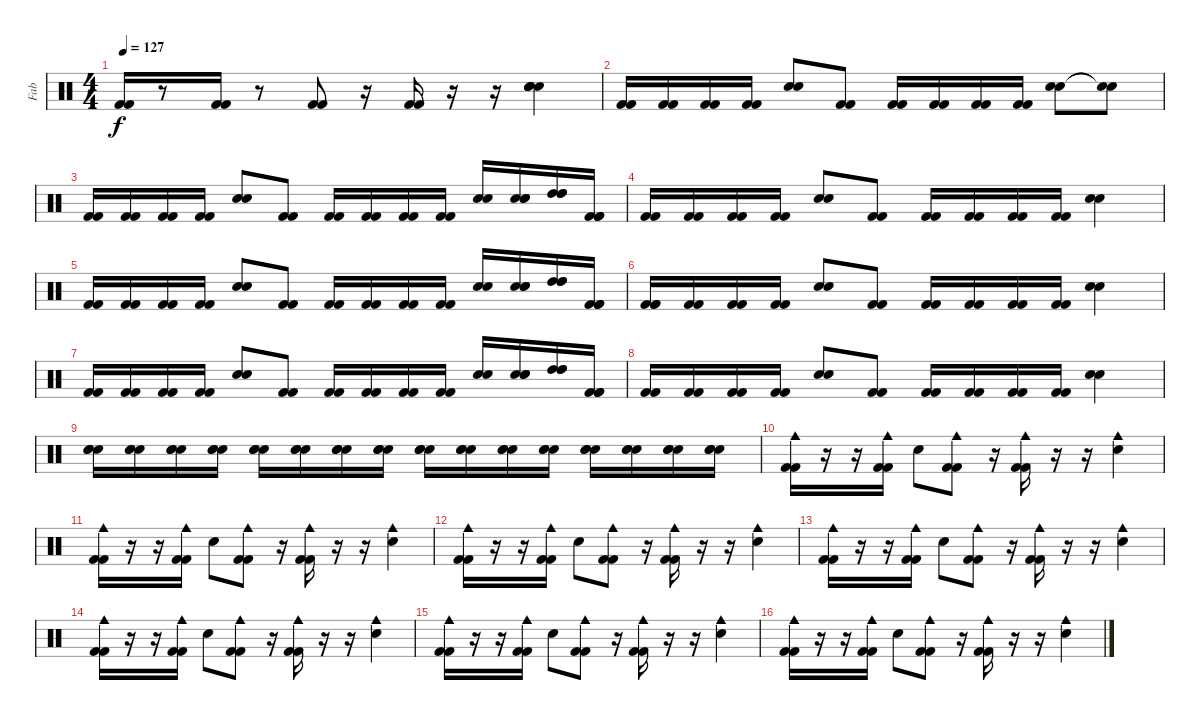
\track ("Fab" "Fab") {instrument percussion}
\staff {score}
\articulation defaults
\ts (4 4)
\tempo 127
\clef neutral
\ks c
("Kick (hit) 2" "Kick (hit) 2").16{dy f} r.8 ("Kick (hit) 2" "Kick (hit) 2").16 r.8 ("Kick (hit) 2" "Kick (hit) 2").8 r.16 ("Kick (hit) 2" "Kick (hit) 2").16 r.16 r.16 ("Electric Snare (hit)" "Hand Clap (hit)" "Hand Clap (hit)" "Hand Clap (hit)").4 |
("Kick (hit) 2" "Kick (hit) 2").16 ("Kick (hit) 2" "Kick (hit) 2").16 ("Kick (hit) 2" "Kick (hit) 2").16 ("Kick (hit) 2" "Kick (hit) 2").16 ("Electric Snare (hit)" "Electric Snare (hit)").8 ("Kick (hit) 2" "Kick (hit) 2").8 ("Kick (hit) 2" "Kick (hit) 2").16 ("Kick (hit) 2" "Kick (hit) 2").16 ("Kick (hit) 2" "Kick (hit) 2").16 ("Kick (hit) 2" "Kick (hit) 2").16 ("Electric Snare (hit)" "Electric Snare (hit)").8 ("Snare (hit)"{t} "Snare (hit)"{t}).8 |
("Kick (hit) 2" "Kick (hit) 2").16 ("Kick (hit) 2" "Kick (hit) 2").16 ("Kick (hit) 2" "Kick (hit) 2").16 ("Kick (hit) 2" "Kick (hit) 2").16 ("Electric Snare (hit)" "Electric Snare (hit)").8 ("Kick (hit) 2" "Kick (hit) 2").8 ("Kick (hit) 2" "Kick (hit) 2").16 ("Kick (hit) 2" "Kick (hit) 2").16 ("Kick (hit) 2" "Kick (hit) 2").16 ("Kick (hit) 2" "Kick (hit) 2").16 ("Electric Snare (hit)" "Electric Snare (hit)").16 ("Snare (hit) 2" "Snare (hit) 2" "Snare (hit) 2").16 ("High Tom (hit)" "High Tom (hit)" "High Tom (hit)").16 ("Kick (hit) 2" "Kick (hit) 2" "Kick (hit) 2").16 |
("Kick (hit) 2" "Kick (hit) 2").16 ("Kick (hit) 2" "Kick (hit) 2").16 ("Kick (hit) 2" "Kick (hit) 2").16 ("Kick (hit) 2" "Kick (hit) 2").16 ("Electric Snare (hit)" "Electric Snare (hit)").8 ("Kick (hit) 2" "Kick (hit) 2").8 ("Kick (hit) 2" "Kick (hit) 2").16 ("Kick (hit) 2" "Kick (hit) 2").16 ("Kick (hit) 2" "Kick (hit) 2").16 ("Kick (hit) 2" "Kick (hit) 2").16 ("Electric Snare (hit)" "Electric Snare (hit)").4 |
("Kick (hit) 2" "Kick (hit) 2").16 ("Kick (hit) 2" "Kick (hit) 2").16 ("Kick (hit) 2" "Kick (hit) 2").16 ("Kick (hit) 2" "Kick (hit) 2").16 ("Electric Snare (hit)" "Electric Snare (hit)").8 ("Kick (hit) 2" "Kick (hit) 2").8 ("Kick (hit) 2" "Kick (hit) 2").16 ("Kick (hit) 2" "Kick (hit) 2").16 ("Kick (hit) 2" "Kick (hit) 2").16 ("Kick (hit) 2" "Kick (hit) 2").16 ("Electric Snare (hit)" "Electric Snare (hit)").16 ("Snare (hit) 2" "Snare (hit) 2" "Snare (hit) 2").16 ("High Tom (hit)" "High Tom (hit)" "High Tom (hit)").16 ("Kick (hit) 2" "Kick (hit) 2" "Kick (hit) 2").16 |
("Kick (hit) 2" "Kick (hit) 2" "Kick (hit) 2").16 ("Kick (hit) 2" "Kick (hit) 2").16 ("Kick (hit) 2" "Kick (hit) 2").16 ("Kick (hit) 2" "Kick (hit) 2").16 ("Electric Snare (hit)" "Electric Snare (hit)").8 ("Kick (hit) 2" "Kick (hit) 2").8 ("Kick (hit) 2" "Kick (hit) 2").16 ("Kick (hit) 2" "Kick (hit) 2").16 ("Kick (hit) 2" "Kick (hit) 2").16 ("Kick (hit) 2" "Kick (hit) 2").16 ("Electric Snare (hit)" "Electric Snare (hit)").4 |
("Kick (hit) 2" "Kick (hit) 2").16 ("Kick (hit) 2" "Kick (hit) 2").16 ("Kick (hit) 2" "Kick (hit) 2").16 ("Kick (hit) 2" "Kick (hit) 2").16 ("Electric Snare (hit)" "Electric Snare (hit)").8 ("Kick (hit) 2" "Kick (hit) 2").8 ("Kick (hit) 2" "Kick (hit) 2").16 ("Kick (hit) 2" "Kick (hit) 2").16 ("Kick (hit) 2" "Kick (hit) 2").16 ("Kick (hit) 2" "Kick (hit) 2").16 ("Electric Snare (hit)" "Electric Snare (hit)").16 ("Snare (hit) 2" "Snare (hit) 2" "Snare (hit) 2").16 ("High Tom (hit)" "High Tom (hit)" "High Tom (hit)").16 ("Kick (hit) 2" "Kick (hit) 2" "Kick (hit) 2").16 |
("Kick (hit) 2" "Kick (hit) 2").16 ("Kick (hit) 2" "Kick (hit) 2").16 ("Kick (hit) 2" "Kick (hit) 2").16 ("Kick (hit) 2" "Kick (hit) 2").16 ("Electric Snare (hit)" "Electric Snare (hit)").8 ("Kick (hit) 2" "Kick (hit) 2").8 ("Kick (hit) 2" "Kick (hit) 2").16 ("Kick (hit) 2" "Kick (hit) 2").16 ("Kick (hit) 2" "Kick (hit) 2").16 ("Kick (hit) 2" "Kick (hit) 2").16 ("Electric Snare (hit)" "Electric Snare (hit)").4 |
("Electric Snare (hit)" "Electric Snare (hit)" "Electric Snare (hit)").16 ("Electric Snare (hit)" "Electric Snare (hit)" "Electric Snare (hit)").16 ("Electric Snare (hit)" "Electric Snare (hit)" "Electric Snare (hit)").16 ("Electric Snare (hit)" "Electric Snare (hit)" "Electric Snare (hit)").16 ("Electric Snare (hit)" "Electric Snare (hit)" "Electric Snare (hit)").16 ("Electric Snare (hit)" "Electric Snare (hit)" "Electric Snare (hit)").16 ("Electric Snare (hit)" "Electric Snare (hit)" "Electric Snare (hit)").16 ("Electric Snare (hit)" "Electric Snare (hit)" "Electric Snare (hit)").16 ("Electric Snare (hit)" "Electric Snare (hit)" "Electric Snare (hit)").16 ("Electric Snare (hit)" "Electric Snare (hit)" "Electric Snare (hit)").16 ("Electric Snare (hit)" "Electric Snare (hit)" "Electric Snare (hit)").16 ("Electric Snare (hit)" "Electric Snare (hit)" "Electric Snare (hit)").16 ("Electric Snare (hit)" "Electric Snare (hit)" "Electric Snare (hit)").16 ("Electric Snare (hit)" "Electric Snare (hit)" "Electric Snare (hit)").16 ("Electric Snare (hit)" "Electric Snare (hit)" "Electric Snare (hit)").16 ("Electric Snare (hit)" "Electric Snare (hit)" "Electric Snare (hit)").16 |
("Kick (hit) 2" "Kick (hit) 2" "Cowbell medium (hit)").16 r.16 r.16 ("Kick (hit) 2" "Kick (hit) 2" "Cowbell medium (hit)").16 "Electric Snare (hit)".8 ("Kick (hit) 2" "Kick (hit) 2" "Cowbell medium (hit)").8 r.16 ("Kick (hit) 2" "Kick (hit) 2" "Cowbell medium (hit)").16 r.16 r.16 ("Electric Snare (hit)" "Cowbell medium (hit)").4 |
("Kick (hit) 2" "Kick (hit) 2" "Cowbell medium (hit)").16 r.16 r.16 ("Kick (hit) 2" "Kick (hit) 2" "Cowbell medium (hit)").16 "Electric Snare (hit)".8 ("Kick (hit) 2" "Kick (hit) 2" "Cowbell medium (hit)").8 r.16 ("Kick (hit) 2" "Kick (hit) 2" "Cowbell medium (hit)").16 r.16 r.16 ("Electric Snare (hit)" "Cowbell medium (hit)").4 |
("Kick (hit) 2" "Kick (hit) 2" "Cowbell medium (hit)").16 r.16 r.16 ("Kick (hit) 2" "Kick (hit) 2" "Cowbell medium (hit)").16 "Electric Snare (hit)".8 ("Kick (hit) 2" "Kick (hit) 2" "Cowbell medium (hit)").8 r.16 ("Kick (hit) 2" "Kick (hit) 2" "Cowbell medium (hit)").16 r.16 r.16 ("Electric Snare (hit)" "Cowbell medium (hit)").4 |
("Kick (hit) 2" "Kick (hit) 2" "Cowbell medium (hit)").16 r.16 r.16 ("Kick (hit) 2" "Kick (hit) 2" "Cowbell medium (hit)").16 "Electric Snare (hit)".8 ("Kick (hit) 2" "Kick (hit) 2" "Cowbell medium (hit)").8 r.16 ("Kick (hit) 2" "Kick (hit) 2" "Cowbell medium (hit)").16 r.16 r.16 ("Electric Snare (hit)" "Cowbell medium (hit)").4 |
("Kick (hit) 2" "Kick (hit) 2" "Cowbell medium (hit)").16 r.16 r.16 ("Kick (hit) 2" "Kick (hit) 2" "Cowbell medium (hit)").16 "Electric Snare (hit)".8 ("Kick (hit) 2" "Kick (hit) 2" "Cowbell medium (hit)").8 r.16 ("Kick (hit) 2" "Kick (hit) 2" "Cowbell medium (hit)").16 r.16 r.16 ("Electric Snare (hit)" "Cowbell medium (hit)").4 |
("Kick (hit) 2" "Kick (hit) 2" "Cowbell medium (hit)").16 r.16 r.16 ("Kick (hit) 2" "Kick (hit) 2" "Cowbell medium (hit)").16 "Electric Snare (hit)".8 ("Kick (hit) 2" "Kick (hit) 2" "Cowbell medium (hit)").8 r.16 ("Kick (hit) 2" "Kick (hit) 2" "Cowbell medium (hit)").16 r.16 r.16 ("Electric Snare (hit)" "Cowbell medium (hit)").4 |
("Kick (hit) 2" "Kick (hit) 2" "Cowbell medium (hit)").16 r.16 r.16 ("Kick (hit) 2" "Kick (hit) 2" "Cowbell medium (hit)").16 "Electric Snare (hit)".8 ("Kick (hit) 2" "Kick (hit) 2" "Cowbell medium (hit)").8 r.16 ("Kick (hit) 2" "Kick (hit) 2" "Cowbell medium (hit)").16 r.16 r.16 ("Electric Snare (hit)" "Cowbell medium (hit)").4
